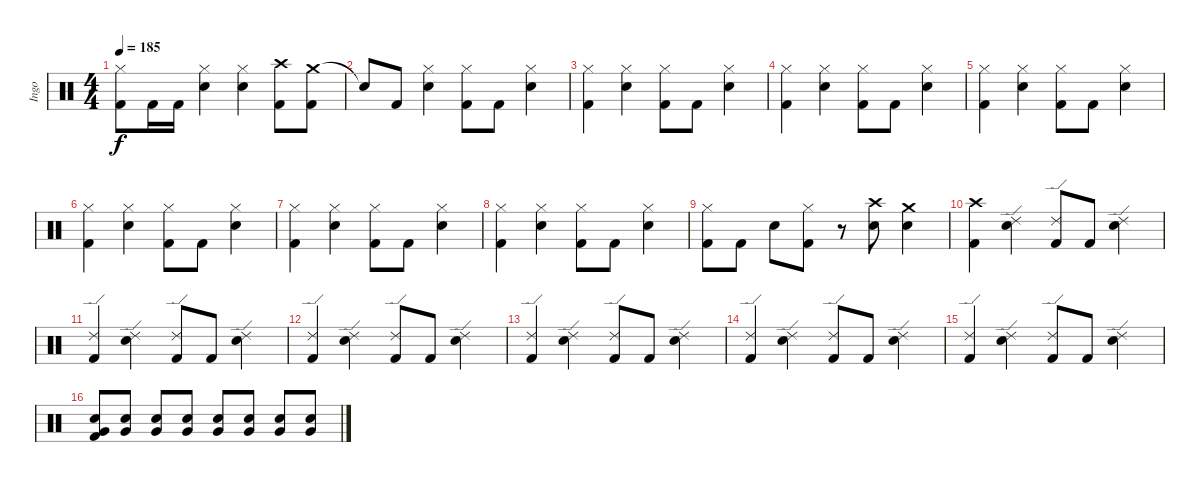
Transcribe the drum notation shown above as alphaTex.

\track ("Ingo" "Ingo") {instrument percussion}
\staff {score}
\articulation defaults
\ts (4 4)
\tempo 185
\clef neutral
\ks c
("Hi-Hat (closed)" "Kick (hit) 2").8{dy f} "Kick (hit) 2".16 "Kick (hit) 2".16 ("Hi-Hat (closed)" "Electric Snare (hit)").4 ("Hi-Hat (closed)" "Electric Snare (hit)").4 ("Crash high (hit)" "Kick (hit) 2").8 ("Crash medium (hit)" "Kick (hit) 2").8 |
"Snare (hit)"{t}.8 "Kick (hit) 2".8 ("Hi-Hat (closed)" "Electric Snare (hit)").4 ("Hi-Hat (closed)" "Kick (hit) 2").8 "Kick (hit) 2".8 ("Hi-Hat (closed)" "Electric Snare (hit)").4 |
("Hi-Hat (closed)" "Kick (hit) 2").4 ("Hi-Hat (closed)" "Electric Snare (hit)").4 ("Hi-Hat (closed)" "Kick (hit) 2").8 "Kick (hit) 2".8 ("Hi-Hat (closed)" "Electric Snare (hit)").4 |
("Hi-Hat (closed)" "Kick (hit) 2").4 ("Hi-Hat (closed)" "Electric Snare (hit)").4 ("Hi-Hat (closed)" "Kick (hit) 2").8 "Kick (hit) 2".8 ("Hi-Hat (closed)" "Electric Snare (hit)").4 |
("Hi-Hat (closed)" "Kick (hit) 2").4 ("Hi-Hat (closed)" "Electric Snare (hit)").4 ("Hi-Hat (closed)" "Kick (hit) 2").8 "Kick (hit) 2".8 ("Hi-Hat (closed)" "Electric Snare (hit)").4 |
("Hi-Hat (closed)" "Kick (hit) 2").4 ("Hi-Hat (closed)" "Electric Snare (hit)").4 ("Hi-Hat (closed)" "Kick (hit) 2").8 "Kick (hit) 2".8 ("Hi-Hat (closed)" "Electric Snare (hit)").4 |
("Hi-Hat (closed)" "Kick (hit) 2").4 ("Hi-Hat (closed)" "Electric Snare (hit)").4 ("Hi-Hat (closed)" "Kick (hit) 2").8 "Kick (hit) 2".8 ("Hi-Hat (closed)" "Electric Snare (hit)").4 |
("Hi-Hat (closed)" "Kick (hit) 2").4 ("Hi-Hat (closed)" "Electric Snare (hit)").4 ("Hi-Hat (closed)" "Kick (hit) 2").8 "Kick (hit) 2".8 ("Hi-Hat (closed)" "Electric Snare (hit)").4 |
("Hi-Hat (closed)" "Kick (hit) 2").8 "Kick (hit) 2".8 "Electric Snare (hit)".8 ("Hi-Hat (closed)" "Kick (hit) 2").8 r.8 ("Crash high (hit)" "Electric Snare (hit)").8 ("Crash medium (hit)" "Electric Snare (hit)").4 |
("Crash high (hit)" "Kick (hit) 2").4 ("Ride (edge) 2" "Electric Snare (hit)").4 ("Ride (edge) 2" "Kick (hit) 2").8 "Kick (hit) 2".8 ("Ride (edge) 2" "Electric Snare (hit)").4 |
("Ride (edge) 2" "Kick (hit) 2").4 ("Ride (edge) 2" "Electric Snare (hit)").4 ("Ride (edge) 2" "Kick (hit) 2").8 "Kick (hit) 2".8 ("Ride (edge) 2" "Electric Snare (hit)").4 |
("Ride (edge) 2" "Kick (hit) 2").4 ("Ride (edge) 2" "Electric Snare (hit)").4 ("Ride (edge) 2" "Kick (hit) 2").8 "Kick (hit) 2".8 ("Ride (edge) 2" "Electric Snare (hit)").4 |
("Ride (edge) 2" "Kick (hit) 2").4 ("Ride (edge) 2" "Electric Snare (hit)").4 ("Ride (edge) 2" "Kick (hit) 2").8 "Kick (hit) 2".8 ("Ride (edge) 2" "Electric Snare (hit)").4 |
("Ride (edge) 2" "Kick (hit) 2").4 ("Ride (edge) 2" "Electric Snare (hit)").4 ("Ride (edge) 2" "Kick (hit) 2").8 "Kick (hit) 2".8 ("Ride (edge) 2" "Electric Snare (hit)").4 |
("Ride (edge) 2" "Kick (hit) 2").4 ("Ride (edge) 2" "Electric Snare (hit)").4 ("Ride (edge) 2" "Kick (hit) 2").8 "Kick (hit) 2".8 ("Ride (edge) 2" "Electric Snare (hit)").4 |
("Electric Snare (hit)" "Very Low Tom (hit)" "Kick (hit) 2").8 ("Electric Snare (hit)" "Very Low Tom (hit)").8 ("Electric Snare (hit)" "Very Low Tom (hit)").8 ("Electric Snare (hit)" "Very Low Tom (hit)").8 ("Electric Snare (hit)" "Very Low Tom (hit)").8 ("Electric Snare (hit)" "Very Low Tom (hit)").8 ("Electric Snare (hit)" "Very Low Tom (hit)").8 ("Electric Snare (hit)" "Very Low Tom (hit)").8
